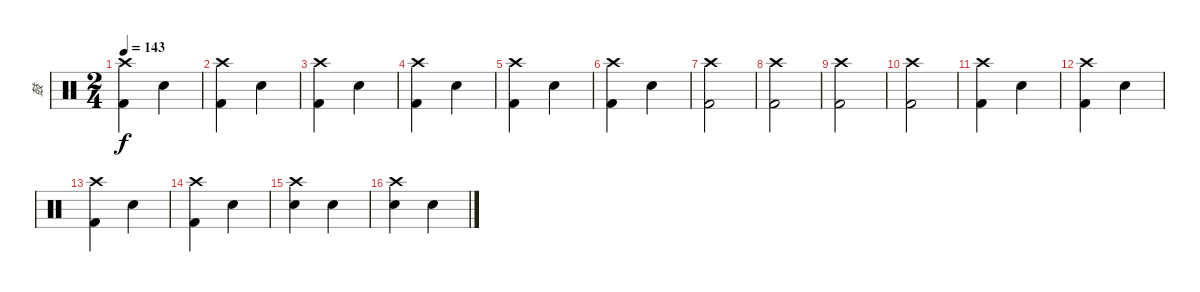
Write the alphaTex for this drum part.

\track ("鼓" "鼓") {instrument percussion}
\staff {score}
\articulation defaults
\ts (2 4)
\tempo 143
\clef neutral
\ks c
("Kick (hit) 2" "Crash high (hit)").4{dy f} "Hand Clap (hit)".4 |
("Kick (hit) 2" "Crash high (hit)").4 "Hand Clap (hit)".4 |
("Kick (hit) 2" "Crash high (hit)").4 "Hand Clap (hit)".4 |
("Kick (hit) 2" "Crash high (hit)").4 "Hand Clap (hit)".4 |
("Kick (hit) 2" "Crash high (hit)").4 "Hand Clap (hit)".4 |
("Kick (hit) 2" "Crash high (hit)").4 "Hand Clap (hit)".4 |
("Kick (hit) 2" "Crash high (hit)").2 |
("Kick (hit) 2" "Crash high (hit)").2 |
("Kick (hit) 2" "Crash high (hit)").2 |
("Kick (hit) 2" "Crash high (hit)").2 |
("Kick (hit) 2" "Crash high (hit)").4 "Hand Clap (hit)".4 |
("Kick (hit) 2" "Crash high (hit)").4 "Hand Clap (hit)".4 |
("Kick (hit) 2" "Crash high (hit)").4 "Hand Clap (hit)".4 |
("Kick (hit) 2" "Crash high (hit)").4 "Hand Clap (hit)".4 |
("Snare (hit) 2" "Crash high (hit)").4 "Hand Clap (hit)".4 |
("Snare (hit) 2" "Crash high (hit)").4 "Hand Clap (hit)".4
